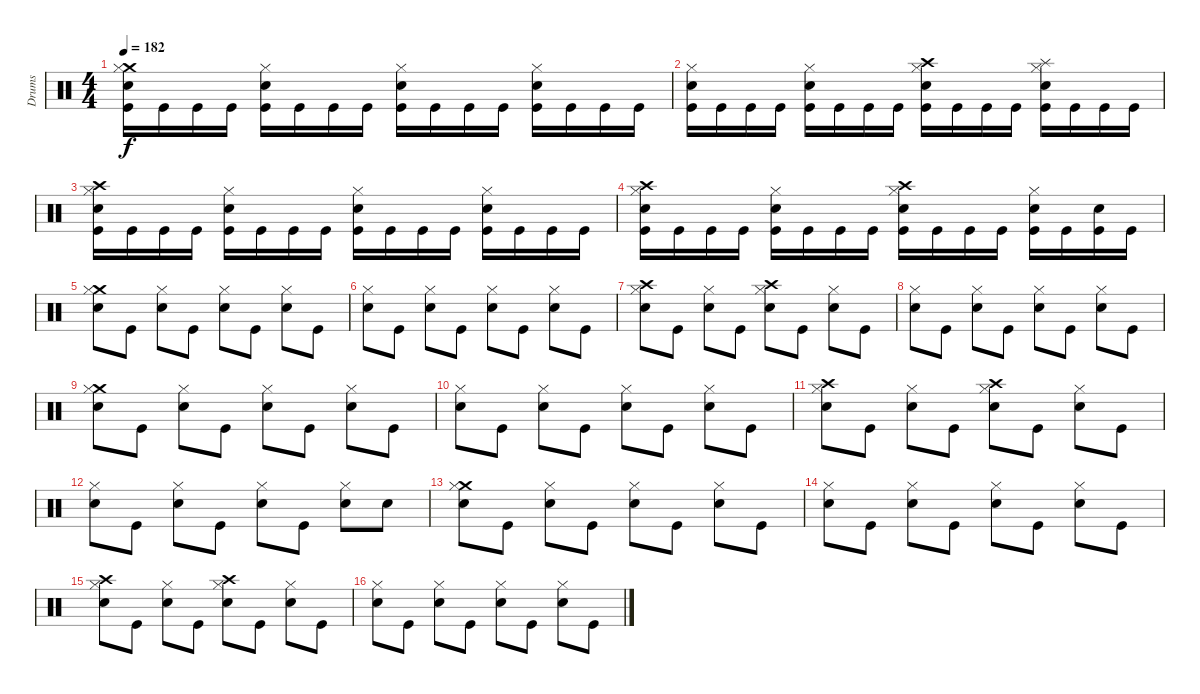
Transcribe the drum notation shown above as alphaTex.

\track ("Drums" "Drums") {instrument percussion}
\staff {score}
\articulation defaults
\ts (4 4)
\tempo 182
\clef neutral
\ks c
("Crash medium (hit)" "Hi-Hat (closed)" "Snare (hit) 2" "Kick (hit)").16{dy f} "Kick (hit)".16 "Kick (hit)".16 "Kick (hit)".16 ("Hi-Hat (closed)" "Snare (hit) 2" "Kick (hit)").16 "Kick (hit)".16 "Kick (hit)".16 "Kick (hit)".16 ("Hi-Hat (closed)" "Snare (hit) 2" "Kick (hit)").16 "Kick (hit)".16 "Kick (hit)".16 "Kick (hit)".16 ("Hi-Hat (closed)" "Snare (hit) 2" "Kick (hit)").16 "Kick (hit)".16 "Kick (hit)".16 "Kick (hit)".16 |
("Hi-Hat (closed)" "Snare (hit) 2" "Kick (hit)").16 "Kick (hit)".16 "Kick (hit)".16 "Kick (hit)".16 ("Hi-Hat (closed)" "Snare (hit) 2" "Kick (hit)").16 "Kick (hit)".16 "Kick (hit)".16 "Kick (hit)".16 ("Crash high (hit)" "Hi-Hat (closed)" "Snare (hit) 2" "Kick (hit)").16 "Kick (hit)".16 "Kick (hit)".16 "Kick (hit)".16 ("Splash (hit)" "Hi-Hat (closed)" "Snare (hit) 2" "Kick (hit)").16 "Kick (hit)".16 "Kick (hit)".16 "Kick (hit)".16 |
("Crash high (hit)" "Hi-Hat (closed)" "Snare (hit) 2" "Kick (hit)").16 "Kick (hit)".16 "Kick (hit)".16 "Kick (hit)".16 ("Hi-Hat (closed)" "Snare (hit) 2" "Kick (hit)").16 "Kick (hit)".16 "Kick (hit)".16 "Kick (hit)".16 ("Hi-Hat (closed)" "Snare (hit) 2" "Kick (hit)").16 "Kick (hit)".16 "Kick (hit)".16 "Kick (hit)".16 ("Hi-Hat (closed)" "Snare (hit) 2" "Kick (hit)").16 "Kick (hit)".16 "Kick (hit)".16 "Kick (hit)".16 |
("Crash high (hit)" "Hi-Hat (closed)" "Snare (hit) 2" "Kick (hit)").16 "Kick (hit)".16 "Kick (hit)".16 "Kick (hit)".16 ("Hi-Hat (closed)" "Snare (hit) 2" "Kick (hit)").16 "Kick (hit)".16 "Kick (hit)".16 "Kick (hit)".16 ("Crash high (hit)" "Hi-Hat (closed)" "Snare (hit) 2" "Kick (hit)").16 "Kick (hit)".16 "Kick (hit)".16 "Kick (hit)".16 ("Hi-Hat (closed)" "Snare (hit) 2" "Kick (hit)").16 "Kick (hit)".16 ("Snare (hit) 2" "Kick (hit)").16 "Kick (hit)".16 |
("Crash medium (hit)" "Hi-Hat (closed)" "Snare (hit) 2").8 "Kick (hit)".8 ("Hi-Hat (closed)" "Snare (hit) 2").8 "Kick (hit)".8 ("Hi-Hat (closed)" "Snare (hit) 2").8 "Kick (hit)".8 ("Hi-Hat (closed)" "Snare (hit) 2").8 "Kick (hit)".8 |
("Hi-Hat (closed)" "Snare (hit) 2").8 "Kick (hit)".8 ("Hi-Hat (closed)" "Snare (hit) 2").8 "Kick (hit)".8 ("Hi-Hat (closed)" "Snare (hit) 2").8 "Kick (hit)".8 ("Hi-Hat (closed)" "Snare (hit) 2").8 "Kick (hit)".8 |
("Crash high (hit)" "Hi-Hat (closed)" "Snare (hit) 2").8 "Kick (hit)".8 ("Hi-Hat (closed)" "Snare (hit) 2").8 "Kick (hit)".8 ("Crash high (hit)" "Hi-Hat (closed)" "Snare (hit) 2").8 "Kick (hit)".8 ("Hi-Hat (closed)" "Snare (hit) 2").8 "Kick (hit)".8 |
("Hi-Hat (closed)" "Snare (hit) 2").8 "Kick (hit)".8 ("Hi-Hat (closed)" "Snare (hit) 2").8 "Kick (hit)".8 ("Hi-Hat (closed)" "Snare (hit) 2").8 "Kick (hit)".8 ("Hi-Hat (closed)" "Snare (hit) 2").8 "Kick (hit)".8 |
("Crash medium (hit)" "Hi-Hat (closed)" "Snare (hit) 2").8 "Kick (hit)".8 ("Hi-Hat (closed)" "Snare (hit) 2").8 "Kick (hit)".8 ("Hi-Hat (closed)" "Snare (hit) 2").8 "Kick (hit)".8 ("Hi-Hat (closed)" "Snare (hit) 2").8 "Kick (hit)".8 |
("Hi-Hat (closed)" "Snare (hit) 2").8 "Kick (hit)".8 ("Hi-Hat (closed)" "Snare (hit) 2").8 "Kick (hit)".8 ("Hi-Hat (closed)" "Snare (hit) 2").8 "Kick (hit)".8 ("Hi-Hat (closed)" "Snare (hit) 2").8 "Kick (hit)".8 |
("Crash high (hit)" "Hi-Hat (closed)" "Snare (hit) 2").8 "Kick (hit)".8 ("Hi-Hat (closed)" "Snare (hit) 2").8 "Kick (hit)".8 ("Crash high (hit)" "Hi-Hat (closed)" "Snare (hit) 2").8 "Kick (hit)".8 ("Hi-Hat (closed)" "Snare (hit) 2").8 "Kick (hit)".8 |
("Hi-Hat (closed)" "Snare (hit) 2").8 "Kick (hit)".8 ("Hi-Hat (closed)" "Snare (hit) 2").8 "Kick (hit)".8 ("Hi-Hat (closed)" "Snare (hit) 2").8 "Kick (hit)".8 ("Hi-Hat (closed)" "Snare (hit) 2").8 "Snare (hit) 2".8 |
("Crash medium (hit)" "Hi-Hat (closed)" "Snare (hit) 2").8 "Kick (hit)".8 ("Hi-Hat (closed)" "Snare (hit) 2").8 "Kick (hit)".8 ("Hi-Hat (closed)" "Snare (hit) 2").8 "Kick (hit)".8 ("Hi-Hat (closed)" "Snare (hit) 2").8 "Kick (hit)".8 |
("Hi-Hat (closed)" "Snare (hit) 2").8 "Kick (hit)".8 ("Hi-Hat (closed)" "Snare (hit) 2").8 "Kick (hit)".8 ("Hi-Hat (closed)" "Snare (hit) 2").8 "Kick (hit)".8 ("Hi-Hat (closed)" "Snare (hit) 2").8 "Kick (hit)".8 |
("Crash high (hit)" "Hi-Hat (closed)" "Snare (hit) 2").8 "Kick (hit)".8 ("Hi-Hat (closed)" "Snare (hit) 2").8 "Kick (hit)".8 ("Crash high (hit)" "Hi-Hat (closed)" "Snare (hit) 2").8 "Kick (hit)".8 ("Hi-Hat (closed)" "Snare (hit) 2").8 "Kick (hit)".8 |
("Hi-Hat (closed)" "Snare (hit) 2").8 "Kick (hit)".8 ("Hi-Hat (closed)" "Snare (hit) 2").8 "Kick (hit)".8 ("Hi-Hat (closed)" "Snare (hit) 2").8 "Kick (hit)".8 ("Hi-Hat (closed)" "Snare (hit) 2").8 "Kick (hit)".8
